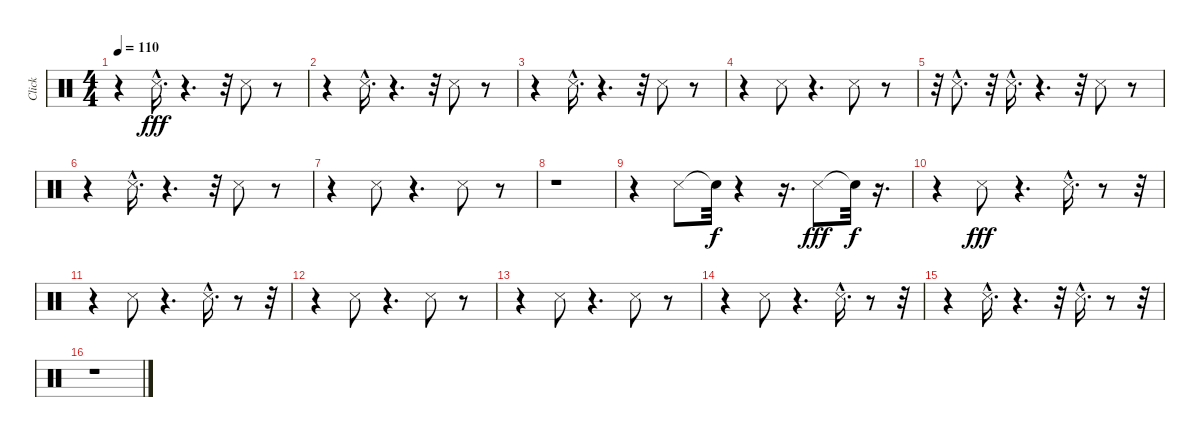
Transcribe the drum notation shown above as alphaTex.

\track ("Click" "Click") {instrument percussion}
\staff {score}
\articulation defaults
\ts (4 4)
\tempo 110
\clef neutral
\ks c
r.4{dy fff} "Snare (side stick) 3"{hac}.16{d} r.4{d} r.32 "Snare (side stick) 3".8 r.8 |
r.4 "Snare (side stick) 3"{hac}.16{d} r.4{d} r.32 "Snare (side stick) 3".8 r.8 |
r.4 "Snare (side stick) 3"{hac}.16{d} r.4{d} r.32 "Snare (side stick) 3".8 r.8 |
r.4 "Snare (side stick) 3".8 r.4{d} "Snare (side stick) 3".8 r.8 |
r.32 "Snare (side stick) 3"{hac}.8{d} r.32 "Snare (side stick) 3"{hac}.16{d} r.4{d} r.32 "Snare (side stick) 3".8 r.8 |
r.4 "Snare (side stick) 3"{hac}.16{d} r.4{d} r.32 "Snare (side stick) 3".8 r.8 |
r.4 "Snare (side stick) 3".8 r.4{d} "Snare (side stick) 3".8 r.8 |
r.1 |
r.4 "Snare (side stick) 3".8 "Snare (hit)"{t}.32{dy f} r.4 r.16{d} "Snare (side stick) 3".8{dy fff} "Snare (hit)"{t}.32{dy f} r.16{d} |
r.4 "Snare (side stick) 3".8{dy fff} r.4{d} "Snare (side stick) 3"{hac}.16{d} r.8 r.32 |
r.4 "Snare (side stick) 3".8 r.4{d} "Snare (side stick) 3"{hac}.16{d} r.8 r.32 |
r.4 "Snare (side stick) 3".8 r.4{d} "Snare (side stick) 3".8 r.8 |
r.4 "Snare (side stick) 3".8 r.4{d} "Snare (side stick) 3".8 r.8 |
r.4 "Snare (side stick) 3".8 r.4{d} "Snare (side stick) 3"{hac}.16{d} r.8 r.32 |
r.4 "Snare (side stick) 3"{hac}.16{d} r.4{d} r.32 "Snare (side stick) 3"{hac}.16{d} r.8 r.32 |
r.1
